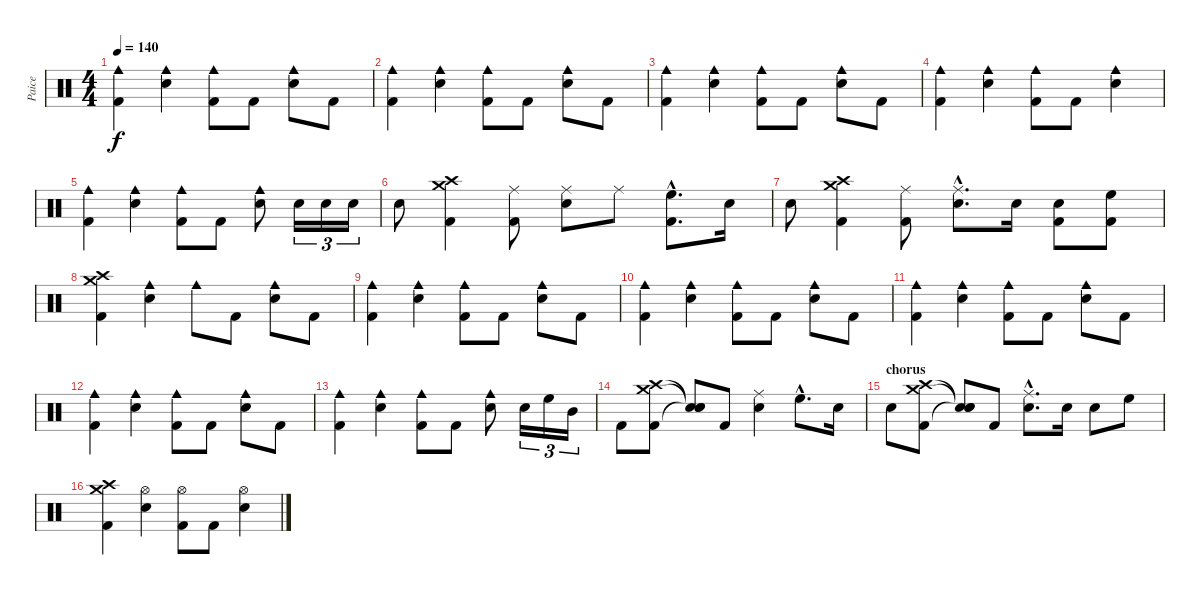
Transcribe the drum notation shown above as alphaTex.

\track ("Paice" "Paice") {instrument percussion}
\staff {score}
\articulation defaults
\ts (4 4)
\tempo 140
\clef neutral
\ks c
("Cowbell medium (hit)" "Kick (hit) 2").4{dy f} ("Cowbell medium (hit)" "Electric Snare (hit)").4 ("Cowbell medium (hit)" "Kick (hit) 2").8 "Kick (hit) 2".8 ("Cowbell medium (hit)" "Electric Snare (hit)").8 "Kick (hit) 2".8 |
("Cowbell medium (hit)" "Kick (hit) 2").4 ("Cowbell medium (hit)" "Electric Snare (hit)").4 ("Cowbell medium (hit)" "Kick (hit) 2").8 "Kick (hit) 2".8 ("Cowbell medium (hit)" "Electric Snare (hit)").8 "Kick (hit) 2".8 |
("Cowbell medium (hit)" "Kick (hit) 2").4 ("Cowbell medium (hit)" "Electric Snare (hit)").4 ("Cowbell medium (hit)" "Kick (hit) 2").8 "Kick (hit) 2".8 ("Cowbell medium (hit)" "Electric Snare (hit)").8 "Kick (hit) 2".8 |
("Cowbell medium (hit)" "Kick (hit) 2").4 ("Cowbell medium (hit)" "Electric Snare (hit)").4 ("Cowbell medium (hit)" "Kick (hit) 2").8 "Kick (hit) 2".8 ("Cowbell medium (hit)" "Electric Snare (hit)").4 |
("Cowbell medium (hit)" "Kick (hit) 2").4 ("Cowbell medium (hit)" "Electric Snare (hit)").4 ("Cowbell medium (hit)" "Kick (hit) 2").8 "Kick (hit) 2".8 ("Cowbell medium (hit)" "Electric Snare (hit)").8 "Electric Snare (hit)".16{tu (3 2)} "Electric Snare (hit)".16{tu (3 2)} "Electric Snare (hit)".16{tu (3 2)} |
"Electric Snare (hit)".8 ("Crash high (hit)" "Crash medium (hit)" "Kick (hit) 2").4 ("Ride (middle)" "Kick (hit) 2").8 ("Ride (middle)" "Electric Snare (hit)").8 "Ride (middle)".8 ("High Floor Tom (hit)"{hac} "Kick (hit) 2"{hac}).8{d} "Electric Snare (hit)".16 |
"Electric Snare (hit)".8 ("Crash high (hit)" "Crash medium (hit)" "Kick (hit) 2").4 ("Ride (middle)" "Kick (hit) 2").8 ("Ride (middle)"{hac} "Electric Snare (hit)"{hac}).8{d} "Electric Snare (hit)".16 ("Electric Snare (hit)" "Kick (hit) 2").8 ("High Floor Tom (hit)" "Kick (hit) 2").8 |
("Crash high (hit)" "Crash medium (hit)" "Kick (hit) 2").4 ("Cowbell medium (hit)" "Electric Snare (hit)").4 "Cowbell medium (hit)".8 "Kick (hit) 2".8 ("Cowbell medium (hit)" "Electric Snare (hit)").8 "Kick (hit) 2".8 |
("Cowbell medium (hit)" "Kick (hit) 2").4 ("Cowbell medium (hit)" "Electric Snare (hit)").4 ("Cowbell medium (hit)" "Kick (hit) 2").8 "Kick (hit) 2".8 ("Cowbell medium (hit)" "Electric Snare (hit)").8 "Kick (hit) 2".8 |
("Cowbell medium (hit)" "Kick (hit) 2").4 ("Cowbell medium (hit)" "Electric Snare (hit)").4 ("Cowbell medium (hit)" "Kick (hit) 2").8 "Kick (hit) 2".8 ("Cowbell medium (hit)" "Electric Snare (hit)").8 "Kick (hit) 2".8 |
("Cowbell medium (hit)" "Kick (hit) 2").4 ("Cowbell medium (hit)" "Electric Snare (hit)").4 ("Cowbell medium (hit)" "Kick (hit) 2").8 "Kick (hit) 2".8 ("Cowbell medium (hit)" "Electric Snare (hit)").8 "Kick (hit) 2".8 |
("Cowbell medium (hit)" "Kick (hit) 2").4 ("Cowbell medium (hit)" "Electric Snare (hit)").4 ("Cowbell medium (hit)" "Kick (hit) 2").8 "Kick (hit) 2".8 ("Cowbell medium (hit)" "Electric Snare (hit)").8 "Kick (hit) 2".8 |
("Cowbell medium (hit)" "Kick (hit) 2").4 ("Cowbell medium (hit)" "Electric Snare (hit)").4 ("Cowbell medium (hit)" "Kick (hit) 2").8 "Kick (hit) 2".8 ("Cowbell medium (hit)" "Electric Snare (hit)").8 "Electric Snare (hit)".16{tu (3 2)} "High Floor Tom (hit)".16{tu (3 2)} "Mid Tom (hit)".16{tu (3 2)} |
"Kick (hit) 2".8 ("Crash high (hit)" "Crash medium (hit)" "Kick (hit) 2").8 ("Snare (hit)"{t} "Snare (hit)"{t} "Snare (hit)"{t}).8 "Kick (hit) 2".8 ("Ride (middle)" "Electric Snare (hit)").4 "High Floor Tom (hit)"{hac}.8{d} "Electric Snare (hit)".16 |
\section ("" "chorus")
"Electric Snare (hit)".8 ("Crash high (hit)" "Crash medium (hit)" "Kick (hit) 2").8 ("Snare (hit)"{t} "Snare (hit)"{t} "Snare (hit)"{t}).8 "Kick (hit) 2".8 ("Ride (middle)"{hac} "Electric Snare (hit)"{hac}).8{d} "Electric Snare (hit)".16 "Electric Snare (hit)".8 "High Floor Tom (hit)".8 |
("Crash high (hit)" "Crash medium (hit)" "Kick (hit) 2").4 ("Hi-Hat (open)" "Electric Snare (hit)").4 ("Hi-Hat (open)" "Kick (hit) 2").8 "Kick (hit) 2".8 ("Hi-Hat (open)" "Electric Snare (hit)").4
